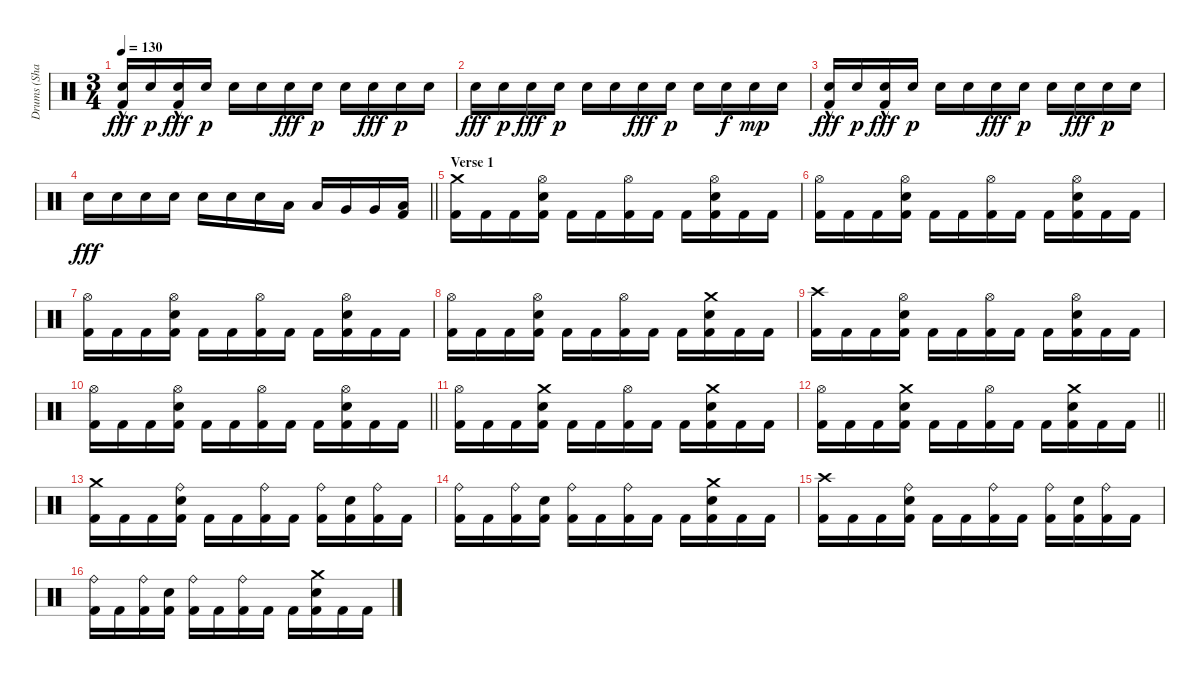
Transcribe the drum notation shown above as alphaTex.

\track ("Drums (Shawn)" "Drums (Sha") {instrument percussion}
\staff {score}
\articulation defaults
\ts (3 4)
\tempo 130
\clef neutral
\ks c
("Snare (hit) 2" "Kick (hit) 2"{hac}).16{dy fff} "Snare (hit) 2".16{dy p} ("Snare (hit) 2" "Kick (hit) 2"{hac}).16{dy fff} "Snare (hit) 2".16{dy p} "Snare (hit) 2".16 "Snare (hit) 2".16 "Snare (hit) 2".16{dy fff} "Snare (hit) 2".16{dy p} "Snare (hit) 2".16 "Snare (hit) 2".16{dy fff} "Snare (hit) 2".16{dy p} "Snare (hit) 2".16 |
"Snare (hit) 2".16{dy fff} "Snare (hit) 2".16{dy p} "Snare (hit) 2".16{dy fff} "Snare (hit) 2".16{dy p} "Snare (hit) 2".16 "Snare (hit) 2".16 "Snare (hit) 2".16{dy fff} "Snare (hit) 2".16{dy p} "Snare (hit) 2".16 "Snare (hit) 2".16{dy f} "Snare (hit) 2".16{dy mp} "Snare (hit) 2".16 |
("Snare (hit) 2" "Kick (hit) 2"{hac}).16{dy fff} "Snare (hit) 2".16{dy p} ("Snare (hit) 2" "Kick (hit) 2"{hac}).16{dy fff} "Snare (hit) 2".16{dy p} "Snare (hit) 2".16 "Snare (hit) 2".16 "Snare (hit) 2".16{dy fff} "Snare (hit) 2".16{dy p} "Snare (hit) 2".16 "Snare (hit) 2".16{dy fff} "Snare (hit) 2".16{dy p} "Snare (hit) 2".16 |
\barLineRight lightlight "Snare (hit) 2".16{dy fff} "Snare (hit) 2".16 "Snare (hit) 2".16 "Snare (hit) 2".16 "Snare (hit) 2".16 "Snare (hit) 2".16 "Snare (hit) 2".16 "Low Tom (hit)".16 "Low Tom (hit)".16 "Very Low Tom (hit)".16 "Very Low Tom (hit)".16
("Low Floor Tom (hit)" "Kick (hit) 2").16 |
\section ("" "Verse 1")
("Crash medium (hit)" "Kick (hit) 2").16 "Kick (hit) 2".16 "Kick (hit) 2".16 ("Hi-Hat (open)" "Snare (hit) 2" "Kick (hit) 2").16 "Kick (hit) 2".16 "Kick (hit) 2".16 ("Hi-Hat (open)" "Kick (hit) 2").16 "Kick (hit) 2".16 "Kick (hit) 2".16 ("Hi-Hat (open)" "Snare (hit) 2" "Kick (hit) 2").16 "Kick (hit) 2".16 "Kick (hit) 2".16 |
("Hi-Hat (open)" "Kick (hit) 2").16 "Kick (hit) 2".16 "Kick (hit) 2".16 ("Hi-Hat (open)" "Snare (hit) 2" "Kick (hit) 2").16 "Kick (hit) 2".16 "Kick (hit) 2".16 ("Hi-Hat (open)" "Kick (hit) 2").16 "Kick (hit) 2".16 "Kick (hit) 2".16 ("Hi-Hat (open)" "Snare (hit) 2" "Kick (hit) 2").16 "Kick (hit) 2".16 "Kick (hit) 2".16 |
("Hi-Hat (open)" "Kick (hit) 2").16 "Kick (hit) 2".16 "Kick (hit) 2".16 ("Hi-Hat (open)" "Snare (hit) 2" "Kick (hit) 2").16 "Kick (hit) 2".16 "Kick (hit) 2".16 ("Hi-Hat (open)" "Kick (hit) 2").16 "Kick (hit) 2".16 "Kick (hit) 2".16 ("Hi-Hat (open)" "Snare (hit) 2" "Kick (hit) 2").16 "Kick (hit) 2".16 "Kick (hit) 2".16 |
("Hi-Hat (open)" "Kick (hit) 2").16 "Kick (hit) 2".16 "Kick (hit) 2".16 ("Hi-Hat (open)" "Snare (hit) 2" "Kick (hit) 2").16 "Kick (hit) 2".16 "Kick (hit) 2".16 ("Hi-Hat (open)" "Kick (hit) 2").16 "Kick (hit) 2".16 "Kick (hit) 2".16 ("Crash medium (hit)" "Snare (hit) 2" "Kick (hit) 2").16 "Kick (hit) 2".16 "Kick (hit) 2".16 |
("Crash high (hit)" "Kick (hit) 2").16 "Kick (hit) 2".16 "Kick (hit) 2".16 ("Hi-Hat (open)" "Snare (hit) 2" "Kick (hit) 2").16 "Kick (hit) 2".16 "Kick (hit) 2".16 ("Hi-Hat (open)" "Kick (hit) 2").16 "Kick (hit) 2".16 "Kick (hit) 2".16 ("Hi-Hat (open)" "Snare (hit) 2" "Kick (hit) 2").16 "Kick (hit) 2".16 "Kick (hit) 2".16 |
\barLineRight lightlight
("Hi-Hat (open)" "Kick (hit) 2").16 "Kick (hit) 2".16 "Kick (hit) 2".16 ("Hi-Hat (open)" "Snare (hit) 2" "Kick (hit) 2").16 "Kick (hit) 2".16 "Kick (hit) 2".16 ("Hi-Hat (open)" "Kick (hit) 2").16 "Kick (hit) 2".16 "Kick (hit) 2".16 ("Hi-Hat (open)" "Snare (hit) 2" "Kick (hit) 2").16 "Kick (hit) 2".16 "Kick (hit) 2".16 |
("Hi-Hat (open)" "Kick (hit) 2").16 "Kick (hit) 2".16 "Kick (hit) 2".16 ("Crash medium (hit)" "Snare (hit) 2" "Kick (hit) 2").16 "Kick (hit) 2".16 "Kick (hit) 2".16 ("Hi-Hat (open)" "Kick (hit) 2").16 "Kick (hit) 2".16 "Kick (hit) 2".16 ("Crash medium (hit)" "Snare (hit) 2" "Kick (hit) 2").16 "Kick (hit) 2".16 "Kick (hit) 2".16 |
\barLineRight lightlight
("Hi-Hat (open)" "Kick (hit) 2").16 "Kick (hit) 2".16 "Kick (hit) 2".16 ("Crash medium (hit)" "Snare (hit) 2" "Kick (hit) 2").16 "Kick (hit) 2".16 "Kick (hit) 2".16 ("Hi-Hat (open)" "Kick (hit) 2").16 "Kick (hit) 2".16 "Kick (hit) 2".16 ("Crash medium (hit)" "Snare (hit) 2" "Kick (hit) 2").16 "Kick (hit) 2".16 "Kick (hit) 2".16 |
("Crash medium (hit)" "Kick (hit) 2").16 "Kick (hit) 2".16 "Kick (hit) 2".16 ("Ride (bell)" "Snare (hit) 2" "Kick (hit) 2").16 "Kick (hit) 2".16 "Kick (hit) 2".16 ("Ride (bell)" "Kick (hit) 2").16 "Kick (hit) 2".16 ("Ride (bell)" "Kick (hit) 2").16 ("Snare (hit) 2" "Kick (hit) 2").16 ("Ride (bell)" "Kick (hit) 2").16 "Kick (hit) 2".16 |
("Ride (bell)" "Kick (hit) 2").16 "Kick (hit) 2".16 ("Ride (bell)" "Kick (hit) 2").16 ("Snare (hit) 2" "Kick (hit) 2").16 ("Ride (bell)" "Kick (hit) 2").16 "Kick (hit) 2".16 ("Ride (bell)" "Kick (hit) 2").16 "Kick (hit) 2".16 "Kick (hit) 2".16 ("Crash medium (hit)" "Snare (hit) 2" "Kick (hit) 2").16 "Kick (hit) 2".16 "Kick (hit) 2".16 |
("Crash high (hit)" "Kick (hit) 2").16 "Kick (hit) 2".16 "Kick (hit) 2".16 ("Ride (bell)" "Snare (hit) 2" "Kick (hit) 2").16 "Kick (hit) 2".16 "Kick (hit) 2".16 ("Ride (bell)" "Kick (hit) 2").16 "Kick (hit) 2".16 ("Ride (bell)" "Kick (hit) 2").16 ("Snare (hit) 2" "Kick (hit) 2").16 ("Ride (bell)" "Kick (hit) 2").16 "Kick (hit) 2".16 |
("Ride (bell)" "Kick (hit) 2").16 "Kick (hit) 2".16 ("Ride (bell)" "Kick (hit) 2").16 ("Snare (hit) 2" "Kick (hit) 2").16 ("Ride (bell)" "Kick (hit) 2").16 "Kick (hit) 2".16 ("Ride (bell)" "Kick (hit) 2").16 "Kick (hit) 2".16 "Kick (hit) 2".16 ("Crash medium (hit)" "Snare (hit) 2" "Kick (hit) 2").16 "Kick (hit) 2".16 "Kick (hit) 2".16
